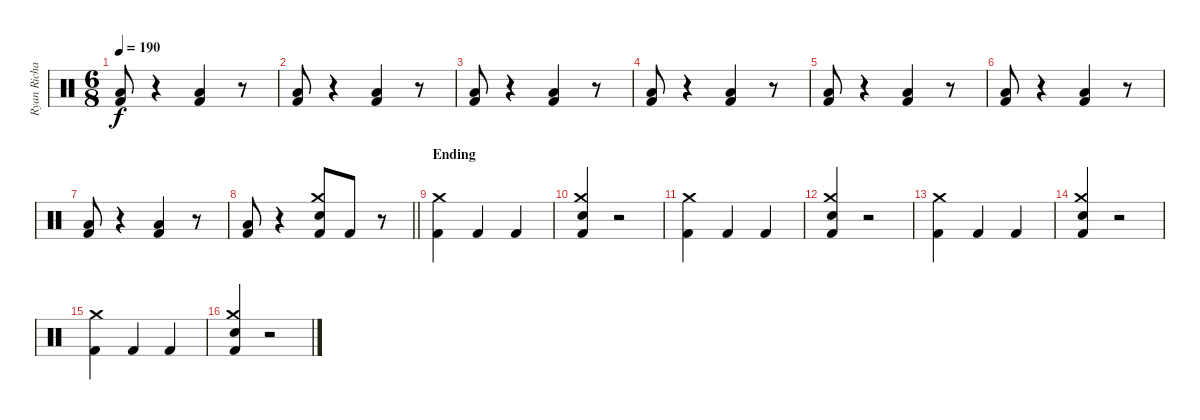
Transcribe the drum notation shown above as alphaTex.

\track ("Ryan Richards" "Ryan Richa") {instrument percussion bank 127}
\staff {score}
\articulation defaults
\ts (6 8)
\tempo 190
\clef neutral
\ks c
("Low Tom (hit)" "Kick (hit) 2").8{dy f} r.4 ("Low Tom (hit)" "Kick (hit) 2").4 r.8 |
("Low Tom (hit)" "Kick (hit) 2").8 r.4 ("Low Tom (hit)" "Kick (hit) 2").4 r.8 |
("Low Tom (hit)" "Kick (hit) 2").8 r.4 ("Low Tom (hit)" "Kick (hit) 2").4 r.8 |
("Low Tom (hit)" "Kick (hit) 2").8 r.4 ("Low Tom (hit)" "Kick (hit) 2").4 r.8 |
("Low Tom (hit)" "Kick (hit) 2").8 r.4 ("Low Tom (hit)" "Kick (hit) 2").4 r.8 |
("Low Tom (hit)" "Kick (hit) 2").8 r.4 ("Low Tom (hit)" "Kick (hit) 2").4 r.8 |
("Low Tom (hit)" "Kick (hit) 2").8 r.4 ("Low Tom (hit)" "Kick (hit) 2").4 r.8 |
\barLineRight lightlight
("Low Tom (hit)" "Kick (hit) 2").8 r.4 ("Crash medium (hit)" "Snare (hit) 2" "Kick (hit) 2").8 "Kick (hit) 2".8 r.8 |
\section ("" "Ending")
("Crash medium (hit)" "Kick (hit) 2").4 "Kick (hit) 2".4 "Kick (hit) 2".4 |
("Crash medium (hit)" "Snare (hit) 2" "Kick (hit) 2").4 r.2 |
("Crash medium (hit)" "Kick (hit) 2").4 "Kick (hit) 2".4 "Kick (hit) 2".4 |
("Crash medium (hit)" "Snare (hit) 2" "Kick (hit) 2").4 r.2 |
("Crash medium (hit)" "Kick (hit) 2").4 "Kick (hit) 2".4 "Kick (hit) 2".4 |
("Crash medium (hit)" "Snare (hit) 2" "Kick (hit) 2").4 r.2 |
("Crash medium (hit)" "Kick (hit) 2").4 "Kick (hit) 2".4 "Kick (hit) 2".4 |
("Crash medium (hit)" "Snare (hit) 2" "Kick (hit) 2").4 r.2
